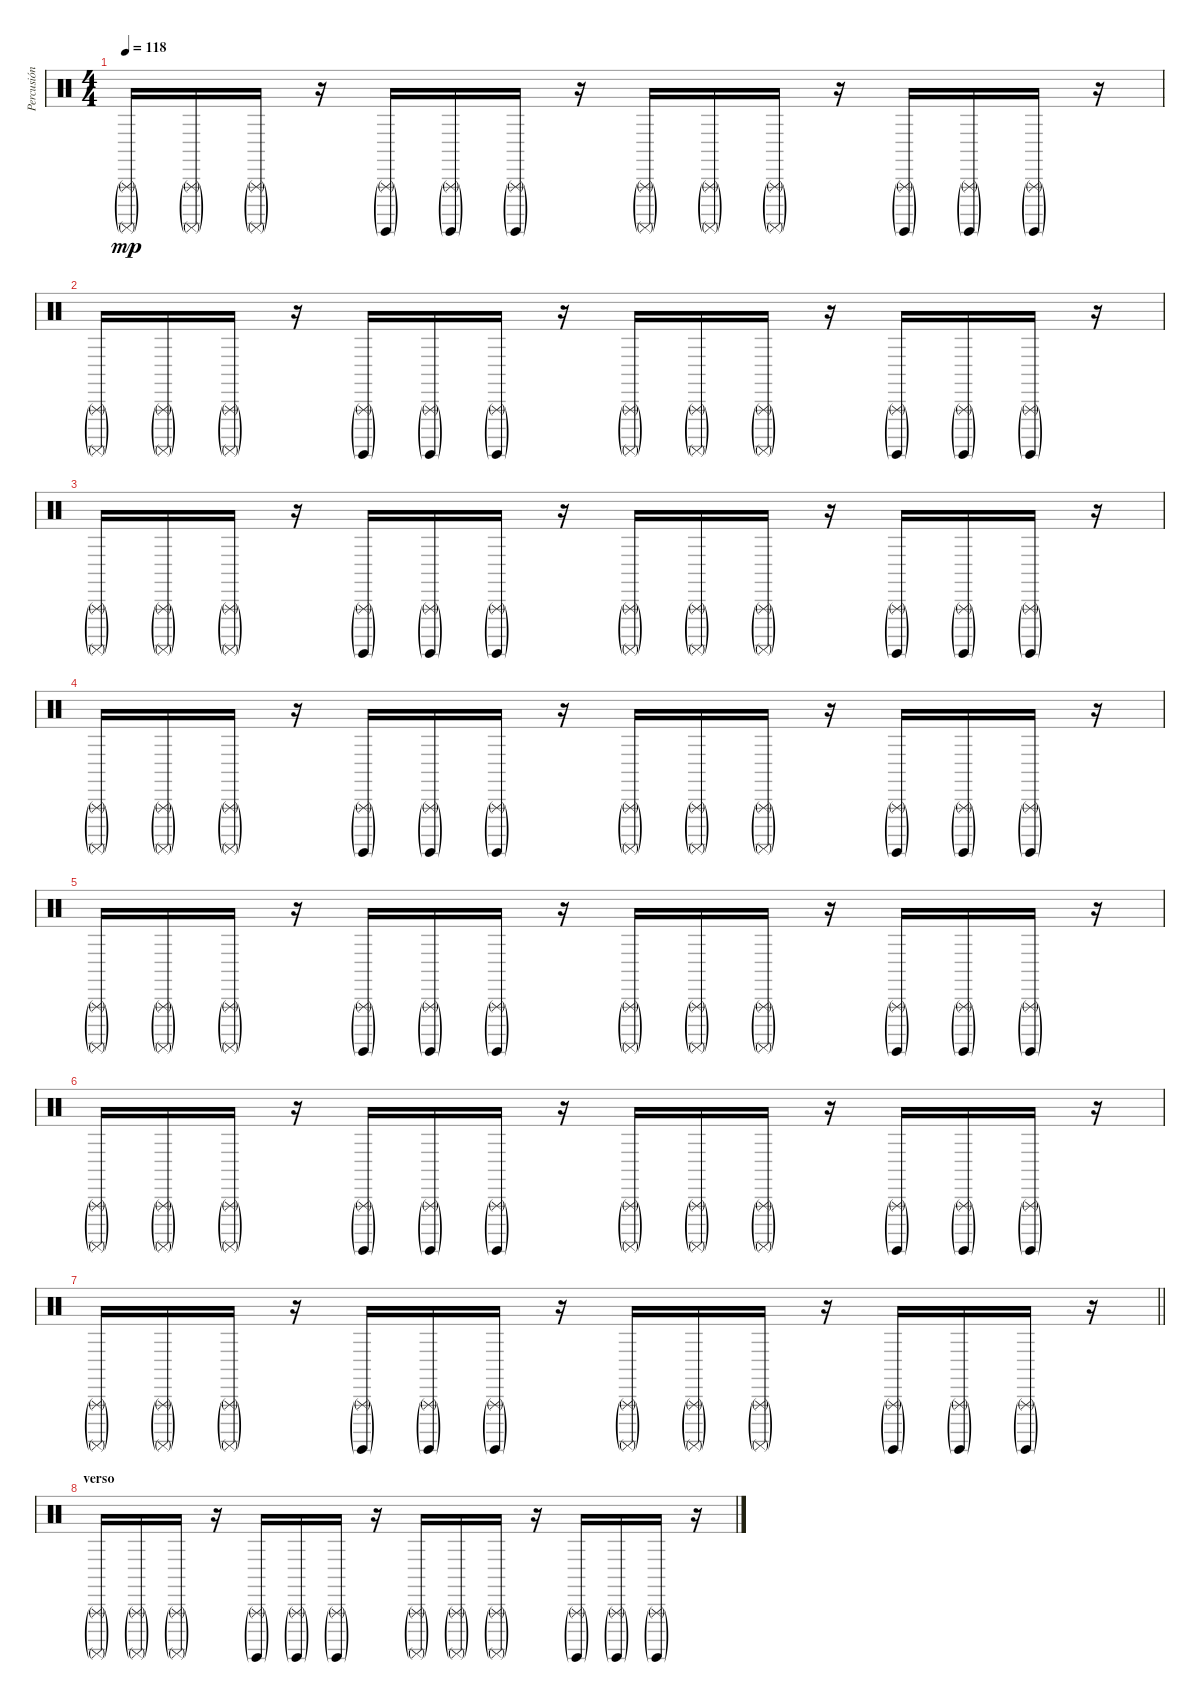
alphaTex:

\track ("Percusión" "Percusión") {instrument percussion}
\staff {score}
\articulation defaults
\ts (4 4)
\tempo 118
\clef neutral
\ks c
("Triangle (rnute)"{g} "Surdo (mute)"{g}).16{dy mp} ("Triangle (rnute)"{g} "Surdo (mute)"{g}).16 ("Triangle (rnute)"{g} "Surdo (mute)"{g}).16 r.16 ("Triangle (rnute)"{g} "Surdo (hit)"{g}).16 ("Triangle (rnute)"{g} "Surdo (hit)"{g}).16 ("Triangle (rnute)"{g} "Surdo (hit)"{g}).16 r.16 ("Triangle (rnute)"{g} "Surdo (mute)"{g}).16 ("Triangle (rnute)"{g} "Surdo (mute)"{g}).16 ("Triangle (rnute)"{g} "Surdo (mute)"{g}).16 r.16 ("Triangle (rnute)"{g} "Surdo (hit)"{g}).16 ("Triangle (rnute)"{g} "Surdo (hit)"{g}).16 ("Triangle (rnute)"{g} "Surdo (hit)"{g}).16 r.16 |
("Triangle (rnute)"{g} "Surdo (mute)"{g}).16 ("Triangle (rnute)"{g} "Surdo (mute)"{g}).16 ("Triangle (rnute)"{g} "Surdo (mute)"{g}).16 r.16 ("Triangle (rnute)"{g} "Surdo (hit)"{g}).16 ("Triangle (rnute)"{g} "Surdo (hit)"{g}).16 ("Triangle (rnute)"{g} "Surdo (hit)"{g}).16 r.16 ("Triangle (rnute)"{g} "Surdo (mute)"{g}).16 ("Triangle (rnute)"{g} "Surdo (mute)"{g}).16 ("Triangle (rnute)"{g} "Surdo (mute)"{g}).16 r.16 ("Triangle (rnute)"{g} "Surdo (hit)"{g}).16 ("Triangle (rnute)"{g} "Surdo (hit)"{g}).16 ("Triangle (rnute)"{g} "Surdo (hit)"{g}).16 r.16 |
("Triangle (rnute)"{g} "Surdo (mute)"{g}).16 ("Triangle (rnute)"{g} "Surdo (mute)"{g}).16 ("Triangle (rnute)"{g} "Surdo (mute)"{g}).16 r.16 ("Triangle (rnute)"{g} "Surdo (hit)"{g}).16 ("Triangle (rnute)"{g} "Surdo (hit)"{g}).16 ("Triangle (rnute)"{g} "Surdo (hit)"{g}).16 r.16 ("Triangle (rnute)"{g} "Surdo (mute)"{g}).16 ("Triangle (rnute)"{g} "Surdo (mute)"{g}).16 ("Triangle (rnute)"{g} "Surdo (mute)"{g}).16 r.16 ("Triangle (rnute)"{g} "Surdo (hit)"{g}).16 ("Triangle (rnute)"{g} "Surdo (hit)"{g}).16 ("Triangle (rnute)"{g} "Surdo (hit)"{g}).16 r.16 |
("Triangle (rnute)"{g} "Surdo (mute)"{g}).16 ("Triangle (rnute)"{g} "Surdo (mute)"{g}).16 ("Triangle (rnute)"{g} "Surdo (mute)"{g}).16 r.16 ("Triangle (rnute)"{g} "Surdo (hit)"{g}).16 ("Triangle (rnute)"{g} "Surdo (hit)"{g}).16 ("Triangle (rnute)"{g} "Surdo (hit)"{g}).16 r.16 ("Triangle (rnute)"{g} "Surdo (mute)"{g}).16 ("Triangle (rnute)"{g} "Surdo (mute)"{g}).16 ("Triangle (rnute)"{g} "Surdo (mute)"{g}).16 r.16 ("Triangle (rnute)"{g} "Surdo (hit)"{g}).16 ("Triangle (rnute)"{g} "Surdo (hit)"{g}).16 ("Triangle (rnute)"{g} "Surdo (hit)"{g}).16 r.16 |
("Triangle (rnute)"{g} "Surdo (mute)"{g}).16 ("Triangle (rnute)"{g} "Surdo (mute)"{g}).16 ("Triangle (rnute)"{g} "Surdo (mute)"{g}).16 r.16 ("Triangle (rnute)"{g} "Surdo (hit)"{g}).16 ("Triangle (rnute)"{g} "Surdo (hit)"{g}).16 ("Triangle (rnute)"{g} "Surdo (hit)"{g}).16 r.16 ("Triangle (rnute)"{g} "Surdo (mute)"{g}).16 ("Triangle (rnute)"{g} "Surdo (mute)"{g}).16 ("Triangle (rnute)"{g} "Surdo (mute)"{g}).16 r.16 ("Triangle (rnute)"{g} "Surdo (hit)"{g}).16 ("Triangle (rnute)"{g} "Surdo (hit)"{g}).16 ("Triangle (rnute)"{g} "Surdo (hit)"{g}).16 r.16 |
("Triangle (rnute)"{g} "Surdo (mute)"{g}).16 ("Triangle (rnute)"{g} "Surdo (mute)"{g}).16 ("Triangle (rnute)"{g} "Surdo (mute)"{g}).16 r.16 ("Triangle (rnute)"{g} "Surdo (hit)"{g}).16 ("Triangle (rnute)"{g} "Surdo (hit)"{g}).16 ("Triangle (rnute)"{g} "Surdo (hit)"{g}).16 r.16 ("Triangle (rnute)"{g} "Surdo (mute)"{g}).16 ("Triangle (rnute)"{g} "Surdo (mute)"{g}).16 ("Triangle (rnute)"{g} "Surdo (mute)"{g}).16 r.16 ("Triangle (rnute)"{g} "Surdo (hit)"{g}).16 ("Triangle (rnute)"{g} "Surdo (hit)"{g}).16 ("Triangle (rnute)"{g} "Surdo (hit)"{g}).16 r.16 |
\barLineRight lightlight
("Triangle (rnute)"{g} "Surdo (mute)"{g}).16 ("Triangle (rnute)"{g} "Surdo (mute)"{g}).16 ("Triangle (rnute)"{g} "Surdo (mute)"{g}).16 r.16 ("Triangle (rnute)"{g} "Surdo (hit)"{g}).16 ("Triangle (rnute)"{g} "Surdo (hit)"{g}).16 ("Triangle (rnute)"{g} "Surdo (hit)"{g}).16 r.16 ("Triangle (rnute)"{g} "Surdo (mute)"{g}).16 ("Triangle (rnute)"{g} "Surdo (mute)"{g}).16 ("Triangle (rnute)"{g} "Surdo (mute)"{g}).16 r.16 ("Triangle (rnute)"{g} "Surdo (hit)"{g}).16 ("Triangle (rnute)"{g} "Surdo (hit)"{g}).16 ("Triangle (rnute)"{g} "Surdo (hit)"{g}).16 r.16 |
\section ("" "verso")
("Triangle (rnute)"{g} "Surdo (mute)"{g}).16 ("Triangle (rnute)"{g} "Surdo (mute)"{g}).16 ("Triangle (rnute)"{g} "Surdo (mute)"{g}).16 r.16 ("Triangle (rnute)"{g} "Surdo (hit)"{g}).16 ("Triangle (rnute)"{g} "Surdo (hit)"{g}).16 ("Triangle (rnute)"{g} "Surdo (hit)"{g}).16 r.16 ("Triangle (rnute)"{g} "Surdo (mute)"{g}).16 ("Triangle (rnute)"{g} "Surdo (mute)"{g}).16 ("Triangle (rnute)"{g} "Surdo (mute)"{g}).16 r.16 ("Triangle (rnute)"{g} "Surdo (hit)"{g}).16 ("Triangle (rnute)"{g} "Surdo (hit)"{g}).16 ("Triangle (rnute)"{g} "Surdo (hit)"{g}).16 r.16
